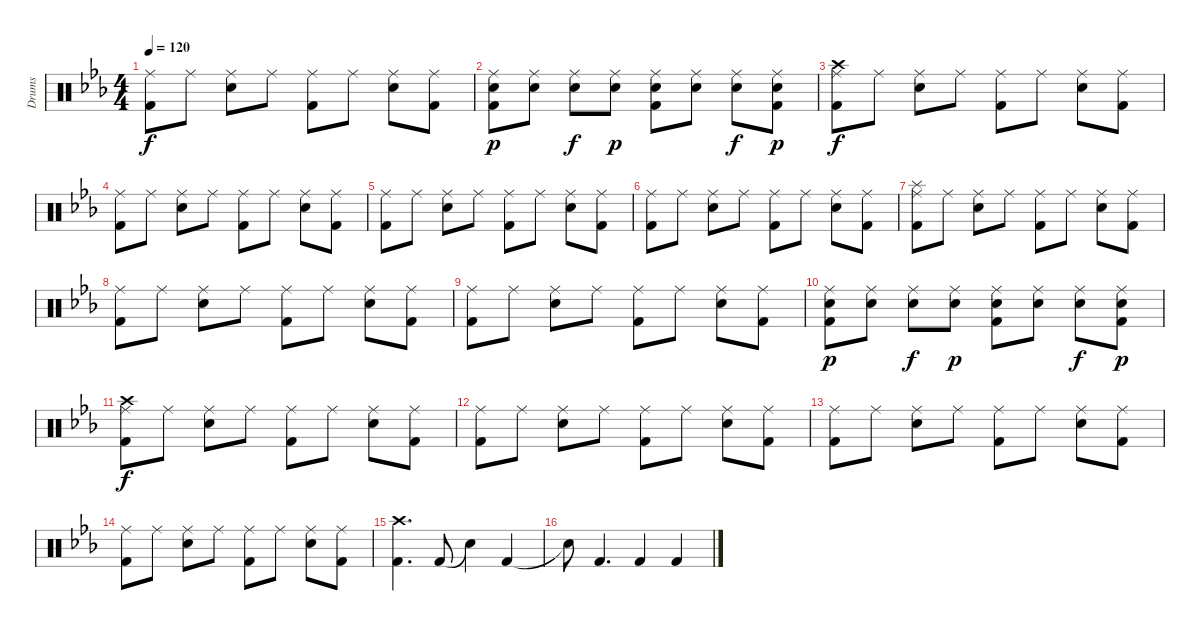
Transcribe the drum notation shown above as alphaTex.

\track ("Drums" "Drums") {instrument percussion}
\staff {score}
\articulation defaults
\ts (4 4)
\tempo 120
\clef neutral
\ks eb
("Ride (middle)" "Kick (hit) 2").8{dy f} "Ride (middle)".8 ("Ride (middle)" "Electric Snare (hit)").8 "Ride (middle)".8 ("Ride (middle)" "Kick (hit) 2").8 "Ride (middle)".8 ("Ride (middle)" "Electric Snare (hit)").8 ("Ride (middle)" "Kick (hit) 2").8 |
("Ride (middle)" "Electric Snare (hit)" "Kick (hit) 2").8{dy p} ("Ride (middle)" "Electric Snare (hit)").8 ("Ride (middle)" "Electric Snare (hit)").8{dy f} ("Ride (middle)" "Electric Snare (hit)").8{dy p} ("Ride (middle)" "Electric Snare (hit)" "Kick (hit) 2").8 ("Ride (middle)" "Electric Snare (hit)").8 ("Ride (middle)" "Electric Snare (hit)").8{dy f} ("Ride (middle)" "Electric Snare (hit)" "Kick (hit) 2").8{dy p} |
("Crash high (hit)" "Ride (middle)" "Kick (hit) 2").8{dy f} "Ride (middle)".8 ("Ride (middle)" "Electric Snare (hit)").8 "Ride (middle)".8 ("Ride (middle)" "Kick (hit) 2").8 "Ride (middle)".8 ("Ride (middle)" "Electric Snare (hit)").8 ("Ride (middle)" "Kick (hit) 2").8 |
("Ride (middle)" "Kick (hit) 2").8 "Ride (middle)".8 ("Ride (middle)" "Electric Snare (hit)").8 "Ride (middle)".8 ("Ride (middle)" "Kick (hit) 2").8 "Ride (middle)".8 ("Ride (middle)" "Electric Snare (hit)").8 ("Ride (middle)" "Kick (hit) 2").8 |
("Ride (middle)" "Kick (hit) 2").8 "Ride (middle)".8 ("Ride (middle)" "Electric Snare (hit)").8 "Ride (middle)".8 ("Ride (middle)" "Kick (hit) 2").8 "Ride (middle)".8 ("Ride (middle)" "Electric Snare (hit)").8 ("Ride (middle)" "Kick (hit) 2").8 |
("Ride (middle)" "Kick (hit) 2").8 "Ride (middle)".8 ("Ride (middle)" "Electric Snare (hit)").8 "Ride (middle)".8 ("Ride (middle)" "Kick (hit) 2").8 "Ride (middle)".8 ("Ride (middle)" "Electric Snare (hit)").8 ("Ride (middle)" "Kick (hit) 2").8 |
("Splash (hit)" "Ride (middle)" "Kick (hit) 2").8 "Ride (middle)".8 ("Ride (middle)" "Electric Snare (hit)").8 "Ride (middle)".8 ("Ride (middle)" "Kick (hit) 2").8 "Ride (middle)".8 ("Ride (middle)" "Electric Snare (hit)").8 ("Ride (middle)" "Kick (hit) 2").8 |
("Ride (middle)" "Kick (hit) 2").8 "Ride (middle)".8 ("Ride (middle)" "Electric Snare (hit)").8 "Ride (middle)".8 ("Ride (middle)" "Kick (hit) 2").8 "Ride (middle)".8 ("Ride (middle)" "Electric Snare (hit)").8 ("Ride (middle)" "Kick (hit) 2").8 |
("Ride (middle)" "Kick (hit) 2").8 "Ride (middle)".8 ("Ride (middle)" "Electric Snare (hit)").8 "Ride (middle)".8 ("Ride (middle)" "Kick (hit) 2").8 "Ride (middle)".8 ("Ride (middle)" "Electric Snare (hit)").8 ("Ride (middle)" "Kick (hit) 2").8 |
("Ride (middle)" "Electric Snare (hit)" "Kick (hit) 2").8{dy p} ("Ride (middle)" "Electric Snare (hit)").8 ("Ride (middle)" "Electric Snare (hit)").8{dy f} ("Ride (middle)" "Electric Snare (hit)").8{dy p} ("Ride (middle)" "Electric Snare (hit)" "Kick (hit) 2").8 ("Ride (middle)" "Electric Snare (hit)").8 ("Ride (middle)" "Electric Snare (hit)").8{dy f} ("Ride (middle)" "Electric Snare (hit)" "Kick (hit) 2").8{dy p} |
("Crash high (hit)" "Ride (middle)" "Kick (hit) 2").8{dy f} "Ride (middle)".8 ("Ride (middle)" "Electric Snare (hit)").8 "Ride (middle)".8 ("Ride (middle)" "Kick (hit) 2").8 "Ride (middle)".8 ("Ride (middle)" "Electric Snare (hit)").8 ("Ride (middle)" "Kick (hit) 2").8 |
("Ride (middle)" "Kick (hit) 2").8 "Ride (middle)".8 ("Ride (middle)" "Electric Snare (hit)").8 "Ride (middle)".8 ("Ride (middle)" "Kick (hit) 2").8 "Ride (middle)".8 ("Ride (middle)" "Electric Snare (hit)").8 ("Ride (middle)" "Kick (hit) 2").8 |
("Ride (middle)" "Kick (hit) 2").8 "Ride (middle)".8 ("Ride (middle)" "Electric Snare (hit)").8 "Ride (middle)".8 ("Ride (middle)" "Kick (hit) 2").8 "Ride (middle)".8 ("Ride (middle)" "Electric Snare (hit)").8 ("Ride (middle)" "Kick (hit) 2").8 |
("Ride (middle)" "Kick (hit) 2").8 "Ride (middle)".8 ("Ride (middle)" "Electric Snare (hit)").8 "Ride (middle)".8 ("Ride (middle)" "Kick (hit) 2").8 "Ride (middle)".8 ("Ride (middle)" "Electric Snare (hit)").8 ("Ride (middle)" "Kick (hit) 2").8 |
("Crash high (hit)" "Kick (hit) 2").4{d} "Kick (hit) 2".8 "Snare (hit)"{t}.4 "Kick (hit) 2".4 |
"Snare (hit)"{t}.8 "Kick (hit) 2".4{d} "Kick (hit) 2".4 "Kick (hit) 2".4
